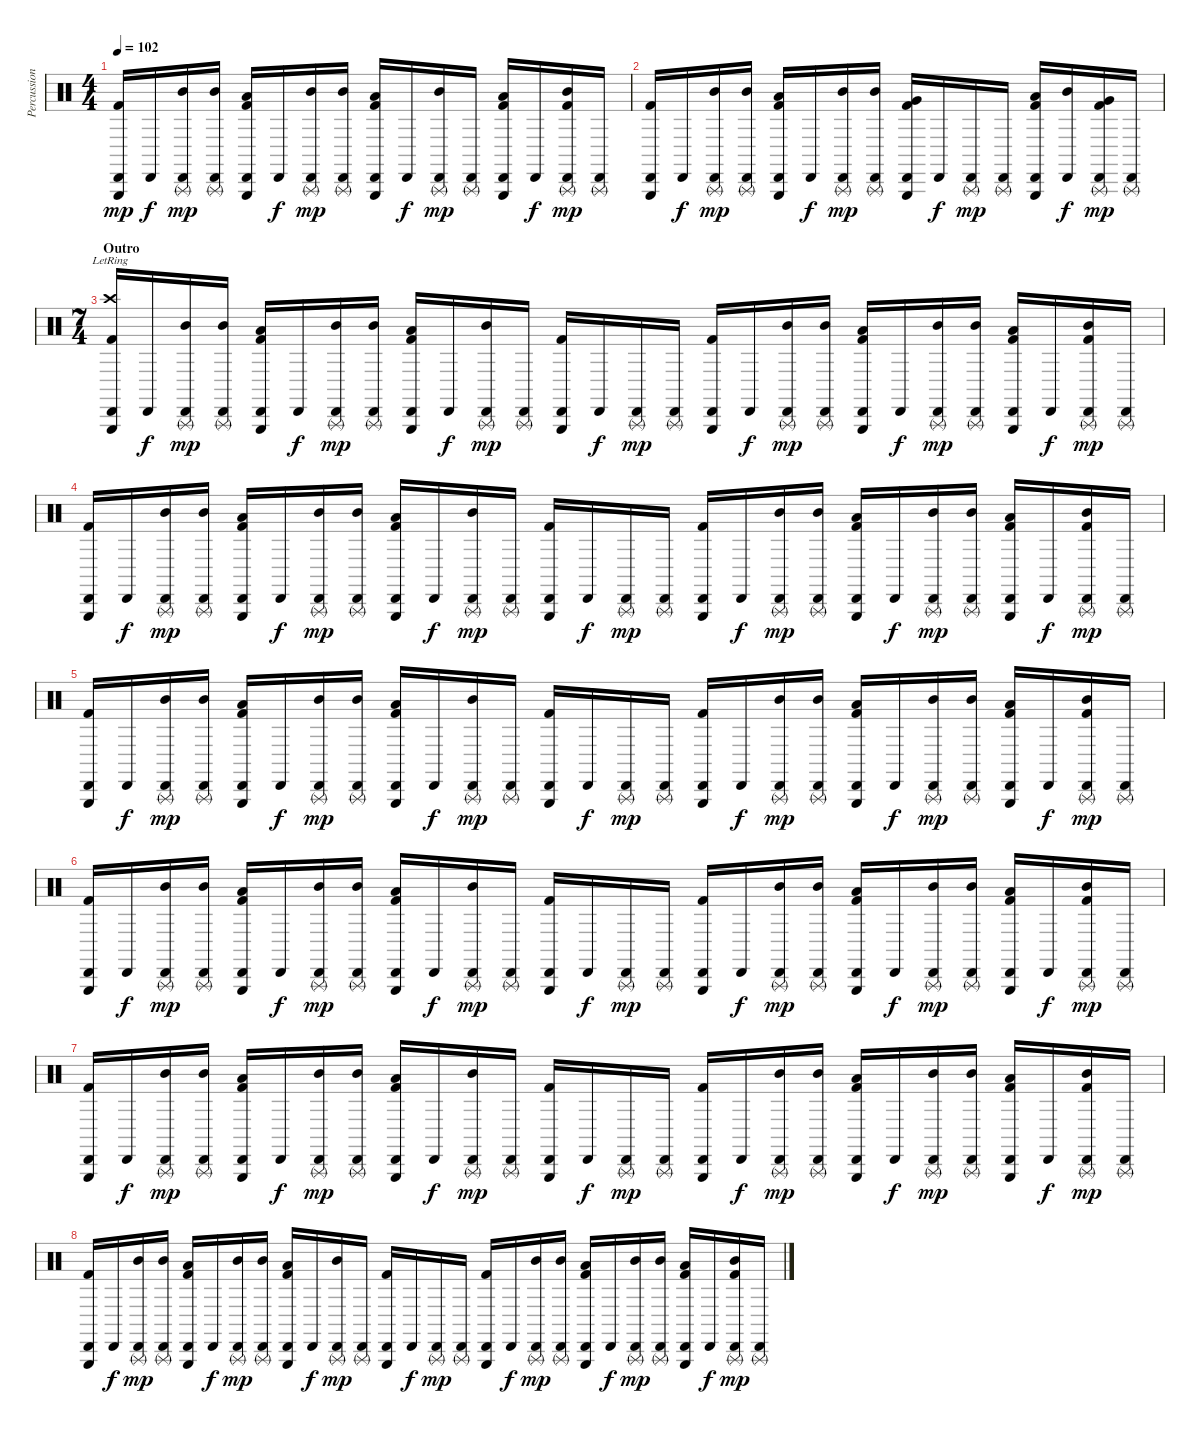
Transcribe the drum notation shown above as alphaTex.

\track ("Percussion" "Percussion") {instrument percussion}
\staff {score}
\articulation defaults
\ts (4 4)
\tempo 102
\clef neutral
\ks c
("Triangle (hit)" "Cabasa (hit)" "Kick (hit) 2").16{dy mp} "Cabasa (hit)".16{dy f} ("Triangle (rnute)" "Cabasa (hit)" "Mid Tom (hit)").16{dy mp} ("Triangle (rnute)" "Cabasa (hit)" "Mid Tom (hit)").16 ("Triangle (hit)" "Cabasa (hit)" "Low Tom (hit)" "Kick (hit) 2").16 "Cabasa (hit)".16{dy f} ("Triangle (rnute)" "Cabasa (hit)" "Mid Tom (hit)").16{dy mp} ("Triangle (rnute)" "Cabasa (hit)" "Mid Tom (hit)").16 ("Triangle (hit)" "Cabasa (hit)" "Low Tom (hit)" "Kick (hit) 2").16 "Cabasa (hit)".16{dy f} ("Triangle (rnute)" "Cabasa (hit)" "Mid Tom (hit)").16{dy mp} ("Triangle (rnute)" "Cabasa (hit)").16 ("Triangle (hit)" "Cabasa (hit)" "Low Tom (hit)" "Kick (hit) 2").16 "Cabasa (hit)".16{dy f} ("Triangle (rnute)" "Cabasa (hit)" "Mid Tom (hit)" "Kick (hit) 2").16{dy mp} ("Triangle (rnute)" "Cabasa (hit)").16 |
("Triangle (hit)" "Cabasa (hit)" "Kick (hit) 2").16 "Cabasa (hit)".16{dy f} ("Triangle (rnute)" "Cabasa (hit)" "Mid Tom (hit)").16{dy mp} ("Triangle (rnute)" "Cabasa (hit)" "Mid Tom (hit)").16 ("Triangle (hit)" "Cabasa (hit)" "Low Tom (hit)" "Kick (hit) 2").16 "Cabasa (hit)".16{dy f} ("Triangle (rnute)" "Cabasa (hit)" "Mid Tom (hit)").16{dy mp} ("Triangle (rnute)" "Cabasa (hit)" "Mid Tom (hit)").16 ("Triangle (hit)" "Cabasa (hit)" "Very Low Tom (hit)" "Kick (hit) 2").16 "Cabasa (hit)".16{dy f} ("Triangle (rnute)" "Cabasa (hit)").16{dy mp} ("Triangle (rnute)" "Cabasa (hit)").16 ("Triangle (hit)" "Cabasa (hit)" "Low Tom (hit)" "Kick (hit) 2").16 ("Cabasa (hit)" "Mid Tom (hit)").16{dy f} ("Triangle (rnute)" "Cabasa (hit)" "Very Low Tom (hit)" "Kick (hit) 2").16{dy mp} ("Triangle (rnute)" "Cabasa (hit)").16 |
\ts (7 4)
\section ("" "Outro")
("Triangle (hit)" "Cabasa (hit)" "Crash high (hit)"{lr} "Kick (hit) 2").16 "Cabasa (hit)".16{dy f} ("Triangle (rnute)" "Cabasa (hit)" "Mid Tom (hit)").16{dy mp} ("Triangle (rnute)" "Cabasa (hit)" "Mid Tom (hit)").16 ("Triangle (hit)" "Cabasa (hit)" "Low Tom (hit)" "Kick (hit) 2").16 "Cabasa (hit)".16{dy f} ("Triangle (rnute)" "Cabasa (hit)" "Mid Tom (hit)").16{dy mp} ("Triangle (rnute)" "Cabasa (hit)" "Mid Tom (hit)").16 ("Triangle (hit)" "Cabasa (hit)" "Low Tom (hit)" "Kick (hit) 2").16 "Cabasa (hit)".16{dy f} ("Triangle (rnute)" "Cabasa (hit)" "Mid Tom (hit)").16{dy mp} ("Triangle (rnute)" "Cabasa (hit)").16 ("Triangle (hit)" "Cabasa (hit)" "Kick (hit) 2").16 "Cabasa (hit)".16{dy f} ("Triangle (rnute)" "Cabasa (hit)").16{dy mp} ("Triangle (rnute)" "Cabasa (hit)").16 ("Triangle (hit)" "Cabasa (hit)" "Kick (hit) 2").16 "Cabasa (hit)".16{dy f} ("Triangle (rnute)" "Cabasa (hit)" "Mid Tom (hit)").16{dy mp} ("Triangle (rnute)" "Cabasa (hit)" "Mid Tom (hit)").16 ("Triangle (hit)" "Cabasa (hit)" "Low Tom (hit)" "Kick (hit) 2").16 "Cabasa (hit)".16{dy f} ("Triangle (rnute)" "Cabasa (hit)" "Mid Tom (hit)").16{dy mp} ("Triangle (rnute)" "Cabasa (hit)" "Mid Tom (hit)").16 ("Triangle (hit)" "Cabasa (hit)" "Low Tom (hit)" "Kick (hit) 2").16 "Cabasa (hit)".16{dy f} ("Triangle (rnute)" "Cabasa (hit)" "Mid Tom (hit)" "Kick (hit) 2").16{dy mp} ("Triangle (rnute)" "Cabasa (hit)").16 |
("Triangle (hit)" "Cabasa (hit)" "Kick (hit) 2").16 "Cabasa (hit)".16{dy f} ("Triangle (rnute)" "Cabasa (hit)" "Mid Tom (hit)").16{dy mp} ("Triangle (rnute)" "Cabasa (hit)" "Mid Tom (hit)").16 ("Triangle (hit)" "Cabasa (hit)" "Low Tom (hit)" "Kick (hit) 2").16 "Cabasa (hit)".16{dy f} ("Triangle (rnute)" "Cabasa (hit)" "Mid Tom (hit)").16{dy mp} ("Triangle (rnute)" "Cabasa (hit)" "Mid Tom (hit)").16 ("Triangle (hit)" "Cabasa (hit)" "Low Tom (hit)" "Kick (hit) 2").16 "Cabasa (hit)".16{dy f} ("Triangle (rnute)" "Cabasa (hit)" "Mid Tom (hit)").16{dy mp} ("Triangle (rnute)" "Cabasa (hit)").16 ("Triangle (hit)" "Cabasa (hit)" "Kick (hit) 2").16 "Cabasa (hit)".16{dy f} ("Triangle (rnute)" "Cabasa (hit)").16{dy mp} ("Triangle (rnute)" "Cabasa (hit)").16 ("Triangle (hit)" "Cabasa (hit)" "Kick (hit) 2").16 "Cabasa (hit)".16{dy f} ("Triangle (rnute)" "Cabasa (hit)" "Mid Tom (hit)").16{dy mp} ("Triangle (rnute)" "Cabasa (hit)" "Mid Tom (hit)").16 ("Triangle (hit)" "Cabasa (hit)" "Low Tom (hit)" "Kick (hit) 2").16 "Cabasa (hit)".16{dy f} ("Triangle (rnute)" "Cabasa (hit)" "Mid Tom (hit)").16{dy mp} ("Triangle (rnute)" "Cabasa (hit)" "Mid Tom (hit)").16 ("Triangle (hit)" "Cabasa (hit)" "Low Tom (hit)" "Kick (hit) 2").16 "Cabasa (hit)".16{dy f} ("Triangle (rnute)" "Cabasa (hit)" "Mid Tom (hit)" "Kick (hit) 2").16{dy mp} ("Triangle (rnute)" "Cabasa (hit)").16 |
("Triangle (hit)" "Cabasa (hit)" "Kick (hit) 2").16 "Cabasa (hit)".16{dy f} ("Triangle (rnute)" "Cabasa (hit)" "Mid Tom (hit)").16{dy mp} ("Triangle (rnute)" "Cabasa (hit)" "Mid Tom (hit)").16 ("Triangle (hit)" "Cabasa (hit)" "Low Tom (hit)" "Kick (hit) 2").16 "Cabasa (hit)".16{dy f} ("Triangle (rnute)" "Cabasa (hit)" "Mid Tom (hit)").16{dy mp} ("Triangle (rnute)" "Cabasa (hit)" "Mid Tom (hit)").16 ("Triangle (hit)" "Cabasa (hit)" "Low Tom (hit)" "Kick (hit) 2").16 "Cabasa (hit)".16{dy f} ("Triangle (rnute)" "Cabasa (hit)" "Mid Tom (hit)").16{dy mp} ("Triangle (rnute)" "Cabasa (hit)").16 ("Triangle (hit)" "Cabasa (hit)" "Kick (hit) 2").16 "Cabasa (hit)".16{dy f} ("Triangle (rnute)" "Cabasa (hit)").16{dy mp} ("Triangle (rnute)" "Cabasa (hit)").16 ("Triangle (hit)" "Cabasa (hit)" "Kick (hit) 2").16 "Cabasa (hit)".16{dy f} ("Triangle (rnute)" "Cabasa (hit)" "Mid Tom (hit)").16{dy mp} ("Triangle (rnute)" "Cabasa (hit)" "Mid Tom (hit)").16 ("Triangle (hit)" "Cabasa (hit)" "Low Tom (hit)" "Kick (hit) 2").16 "Cabasa (hit)".16{dy f} ("Triangle (rnute)" "Cabasa (hit)" "Mid Tom (hit)").16{dy mp} ("Triangle (rnute)" "Cabasa (hit)" "Mid Tom (hit)").16 ("Triangle (hit)" "Cabasa (hit)" "Low Tom (hit)" "Kick (hit) 2").16 "Cabasa (hit)".16{dy f} ("Triangle (rnute)" "Cabasa (hit)" "Mid Tom (hit)" "Kick (hit) 2").16{dy mp} ("Triangle (rnute)" "Cabasa (hit)").16 |
("Triangle (hit)" "Cabasa (hit)" "Kick (hit) 2").16 "Cabasa (hit)".16{dy f} ("Triangle (rnute)" "Cabasa (hit)" "Mid Tom (hit)").16{dy mp} ("Triangle (rnute)" "Cabasa (hit)" "Mid Tom (hit)").16 ("Triangle (hit)" "Cabasa (hit)" "Low Tom (hit)" "Kick (hit) 2").16 "Cabasa (hit)".16{dy f} ("Triangle (rnute)" "Cabasa (hit)" "Mid Tom (hit)").16{dy mp} ("Triangle (rnute)" "Cabasa (hit)" "Mid Tom (hit)").16 ("Triangle (hit)" "Cabasa (hit)" "Low Tom (hit)" "Kick (hit) 2").16 "Cabasa (hit)".16{dy f} ("Triangle (rnute)" "Cabasa (hit)" "Mid Tom (hit)").16{dy mp} ("Triangle (rnute)" "Cabasa (hit)").16 ("Triangle (hit)" "Cabasa (hit)" "Kick (hit) 2").16 "Cabasa (hit)".16{dy f} ("Triangle (rnute)" "Cabasa (hit)").16{dy mp} ("Triangle (rnute)" "Cabasa (hit)").16 ("Triangle (hit)" "Cabasa (hit)" "Kick (hit) 2").16 "Cabasa (hit)".16{dy f} ("Triangle (rnute)" "Cabasa (hit)" "Mid Tom (hit)").16{dy mp} ("Triangle (rnute)" "Cabasa (hit)" "Mid Tom (hit)").16 ("Triangle (hit)" "Cabasa (hit)" "Low Tom (hit)" "Kick (hit) 2").16 "Cabasa (hit)".16{dy f} ("Triangle (rnute)" "Cabasa (hit)" "Mid Tom (hit)").16{dy mp} ("Triangle (rnute)" "Cabasa (hit)" "Mid Tom (hit)").16 ("Triangle (hit)" "Cabasa (hit)" "Low Tom (hit)" "Kick (hit) 2").16 "Cabasa (hit)".16{dy f} ("Triangle (rnute)" "Cabasa (hit)" "Mid Tom (hit)" "Kick (hit) 2").16{dy mp} ("Triangle (rnute)" "Cabasa (hit)").16 |
("Triangle (hit)" "Cabasa (hit)" "Kick (hit) 2").16 "Cabasa (hit)".16{dy f} ("Triangle (rnute)" "Cabasa (hit)" "Mid Tom (hit)").16{dy mp} ("Triangle (rnute)" "Cabasa (hit)" "Mid Tom (hit)").16 ("Triangle (hit)" "Cabasa (hit)" "Low Tom (hit)" "Kick (hit) 2").16 "Cabasa (hit)".16{dy f} ("Triangle (rnute)" "Cabasa (hit)" "Mid Tom (hit)").16{dy mp} ("Triangle (rnute)" "Cabasa (hit)" "Mid Tom (hit)").16 ("Triangle (hit)" "Cabasa (hit)" "Low Tom (hit)" "Kick (hit) 2").16 "Cabasa (hit)".16{dy f} ("Triangle (rnute)" "Cabasa (hit)" "Mid Tom (hit)").16{dy mp} ("Triangle (rnute)" "Cabasa (hit)").16 ("Triangle (hit)" "Cabasa (hit)" "Kick (hit) 2").16 "Cabasa (hit)".16{dy f} ("Triangle (rnute)" "Cabasa (hit)").16{dy mp} ("Triangle (rnute)" "Cabasa (hit)").16 ("Triangle (hit)" "Cabasa (hit)" "Kick (hit) 2").16 "Cabasa (hit)".16{dy f} ("Triangle (rnute)" "Cabasa (hit)" "Mid Tom (hit)").16{dy mp} ("Triangle (rnute)" "Cabasa (hit)" "Mid Tom (hit)").16 ("Triangle (hit)" "Cabasa (hit)" "Low Tom (hit)" "Kick (hit) 2").16 "Cabasa (hit)".16{dy f} ("Triangle (rnute)" "Cabasa (hit)" "Mid Tom (hit)").16{dy mp} ("Triangle (rnute)" "Cabasa (hit)" "Mid Tom (hit)").16 ("Triangle (hit)" "Cabasa (hit)" "Low Tom (hit)" "Kick (hit) 2").16 "Cabasa (hit)".16{dy f} ("Triangle (rnute)" "Cabasa (hit)" "Mid Tom (hit)" "Kick (hit) 2").16{dy mp} ("Triangle (rnute)" "Cabasa (hit)").16 |
("Triangle (hit)" "Cabasa (hit)" "Kick (hit) 2").16 "Cabasa (hit)".16{dy f} ("Triangle (rnute)" "Cabasa (hit)" "Mid Tom (hit)").16{dy mp} ("Triangle (rnute)" "Cabasa (hit)" "Mid Tom (hit)").16 ("Triangle (hit)" "Cabasa (hit)" "Low Tom (hit)" "Kick (hit) 2").16 "Cabasa (hit)".16{dy f} ("Triangle (rnute)" "Cabasa (hit)" "Mid Tom (hit)").16{dy mp} ("Triangle (rnute)" "Cabasa (hit)" "Mid Tom (hit)").16 ("Triangle (hit)" "Cabasa (hit)" "Low Tom (hit)" "Kick (hit) 2").16 "Cabasa (hit)".16{dy f} ("Triangle (rnute)" "Cabasa (hit)" "Mid Tom (hit)").16{dy mp} ("Triangle (rnute)" "Cabasa (hit)").16 ("Triangle (hit)" "Cabasa (hit)" "Kick (hit) 2").16 "Cabasa (hit)".16{dy f} ("Triangle (rnute)" "Cabasa (hit)").16{dy mp} ("Triangle (rnute)" "Cabasa (hit)").16 ("Triangle (hit)" "Cabasa (hit)" "Kick (hit) 2").16 "Cabasa (hit)".16{dy f} ("Triangle (rnute)" "Cabasa (hit)" "Mid Tom (hit)").16{dy mp} ("Triangle (rnute)" "Cabasa (hit)" "Mid Tom (hit)").16 ("Triangle (hit)" "Cabasa (hit)" "Low Tom (hit)" "Kick (hit) 2").16 "Cabasa (hit)".16{dy f} ("Triangle (rnute)" "Cabasa (hit)" "Mid Tom (hit)").16{dy mp} ("Triangle (rnute)" "Cabasa (hit)" "Mid Tom (hit)").16 ("Triangle (hit)" "Cabasa (hit)" "Low Tom (hit)" "Kick (hit) 2").16 "Cabasa (hit)".16{dy f} ("Triangle (rnute)" "Cabasa (hit)" "Mid Tom (hit)" "Kick (hit) 2").16{dy mp} ("Triangle (rnute)" "Cabasa (hit)").16
